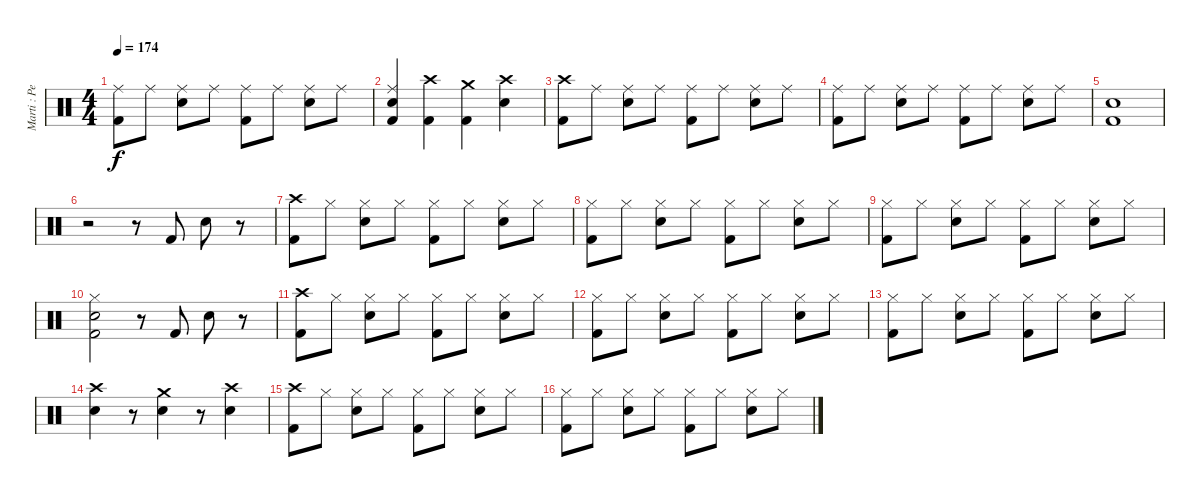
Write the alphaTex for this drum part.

\track ("Marti : Percussion" "Marti : Pe") {instrument percussion}
\staff {score}
\articulation defaults
\ts (4 4)
\tempo 174
\clef neutral
\ks c
("Kick (hit) 2" "Ride (middle)").8{dy f} "Ride (middle)".8 ("Electric Snare (hit)" "Ride (middle)").8 "Ride (middle)".8 ("Kick (hit) 2" "Ride (middle)").8 "Ride (middle)".8 ("Electric Snare (hit)" "Ride (middle)").8 "Ride (middle)".8 |
("Kick (hit) 2" "Electric Snare (hit)" "Ride (middle)").4 ("Kick (hit) 2" "Crash high (hit)").4 ("Kick (hit) 2" "Crash medium (hit)").4 ("Electric Snare (hit)" "Crash high (hit)").4 |
("Kick (hit) 2" "Crash high (hit)").8 "Ride (middle)".8 ("Electric Snare (hit)" "Ride (middle)").8 "Ride (middle)".8 ("Kick (hit) 2" "Ride (middle)").8 "Ride (middle)".8 ("Electric Snare (hit)" "Ride (middle)").8 "Ride (middle)".8 |
("Kick (hit) 2" "Ride (middle)").8 "Ride (middle)".8 ("Electric Snare (hit)" "Ride (middle)").8 "Ride (middle)".8 ("Kick (hit) 2" "Ride (middle)").8 "Ride (middle)".8 ("Electric Snare (hit)" "Ride (middle)").8 "Ride (middle)".8 |
("Electric Snare (hit)" "Kick (hit) 2").1 |
r.2 r.8 "Kick (hit) 2".8 "Electric Snare (hit)".8 r.8 |
("Kick (hit) 2" "Crash high (hit)").8 "Hi-Hat (closed)".8 ("Electric Snare (hit)" "Hi-Hat (closed)").8 "Hi-Hat (closed)".8 ("Kick (hit) 2" "Hi-Hat (closed)").8 "Hi-Hat (closed)".8 ("Electric Snare (hit)" "Hi-Hat (closed)").8 "Hi-Hat (closed)".8 |
("Kick (hit) 2" "Hi-Hat (closed)").8 "Hi-Hat (closed)".8 ("Electric Snare (hit)" "Hi-Hat (closed)").8 "Hi-Hat (closed)".8 ("Kick (hit) 2" "Hi-Hat (closed)").8 "Hi-Hat (closed)".8 ("Electric Snare (hit)" "Hi-Hat (closed)").8 "Hi-Hat (closed)".8 |
("Kick (hit) 2" "Hi-Hat (closed)").8 "Hi-Hat (closed)".8 ("Electric Snare (hit)" "Hi-Hat (closed)").8 "Hi-Hat (closed)".8 ("Kick (hit) 2" "Hi-Hat (closed)").8 "Hi-Hat (closed)".8 ("Electric Snare (hit)" "Hi-Hat (closed)").8 "Hi-Hat (closed)".8 |
("Electric Snare (hit)" "Kick (hit) 2" "Hi-Hat (closed)").2 r.8 "Kick (hit) 2".8 "Electric Snare (hit)".8 r.8 |
("Kick (hit) 2" "Crash high (hit)").8 "Hi-Hat (closed)".8 ("Electric Snare (hit)" "Hi-Hat (closed)").8 "Hi-Hat (closed)".8 ("Kick (hit) 2" "Hi-Hat (closed)").8 "Hi-Hat (closed)".8 ("Electric Snare (hit)" "Hi-Hat (closed)").8 "Hi-Hat (closed)".8 |
("Kick (hit) 2" "Hi-Hat (closed)").8 "Hi-Hat (closed)".8 ("Electric Snare (hit)" "Hi-Hat (closed)").8 "Hi-Hat (closed)".8 ("Kick (hit) 2" "Hi-Hat (closed)").8 "Hi-Hat (closed)".8 ("Electric Snare (hit)" "Hi-Hat (closed)").8 "Hi-Hat (closed)".8 |
("Kick (hit) 2" "Hi-Hat (closed)").8 "Hi-Hat (closed)".8 ("Electric Snare (hit)" "Hi-Hat (closed)").8 "Hi-Hat (closed)".8 ("Kick (hit) 2" "Hi-Hat (closed)").8 "Hi-Hat (closed)".8 ("Electric Snare (hit)" "Hi-Hat (closed)").8 "Hi-Hat (closed)".8 |
("Electric Snare (hit)" "Crash high (hit)").4 r.8 ("Electric Snare (hit)" "Crash medium (hit)").4 r.8 ("Electric Snare (hit)" "Crash high (hit)").4 |
("Kick (hit) 2" "Crash high (hit)").8 "Hi-Hat (closed)".8 ("Electric Snare (hit)" "Hi-Hat (closed)").8 "Hi-Hat (closed)".8 ("Kick (hit) 2" "Hi-Hat (closed)").8 "Hi-Hat (closed)".8 ("Electric Snare (hit)" "Hi-Hat (closed)").8 "Hi-Hat (closed)".8 |
("Kick (hit) 2" "Hi-Hat (closed)").8 "Hi-Hat (closed)".8 ("Electric Snare (hit)" "Hi-Hat (closed)").8 "Hi-Hat (closed)".8 ("Kick (hit) 2" "Hi-Hat (closed)").8 "Hi-Hat (closed)".8 ("Electric Snare (hit)" "Hi-Hat (closed)").8 "Hi-Hat (closed)".8
